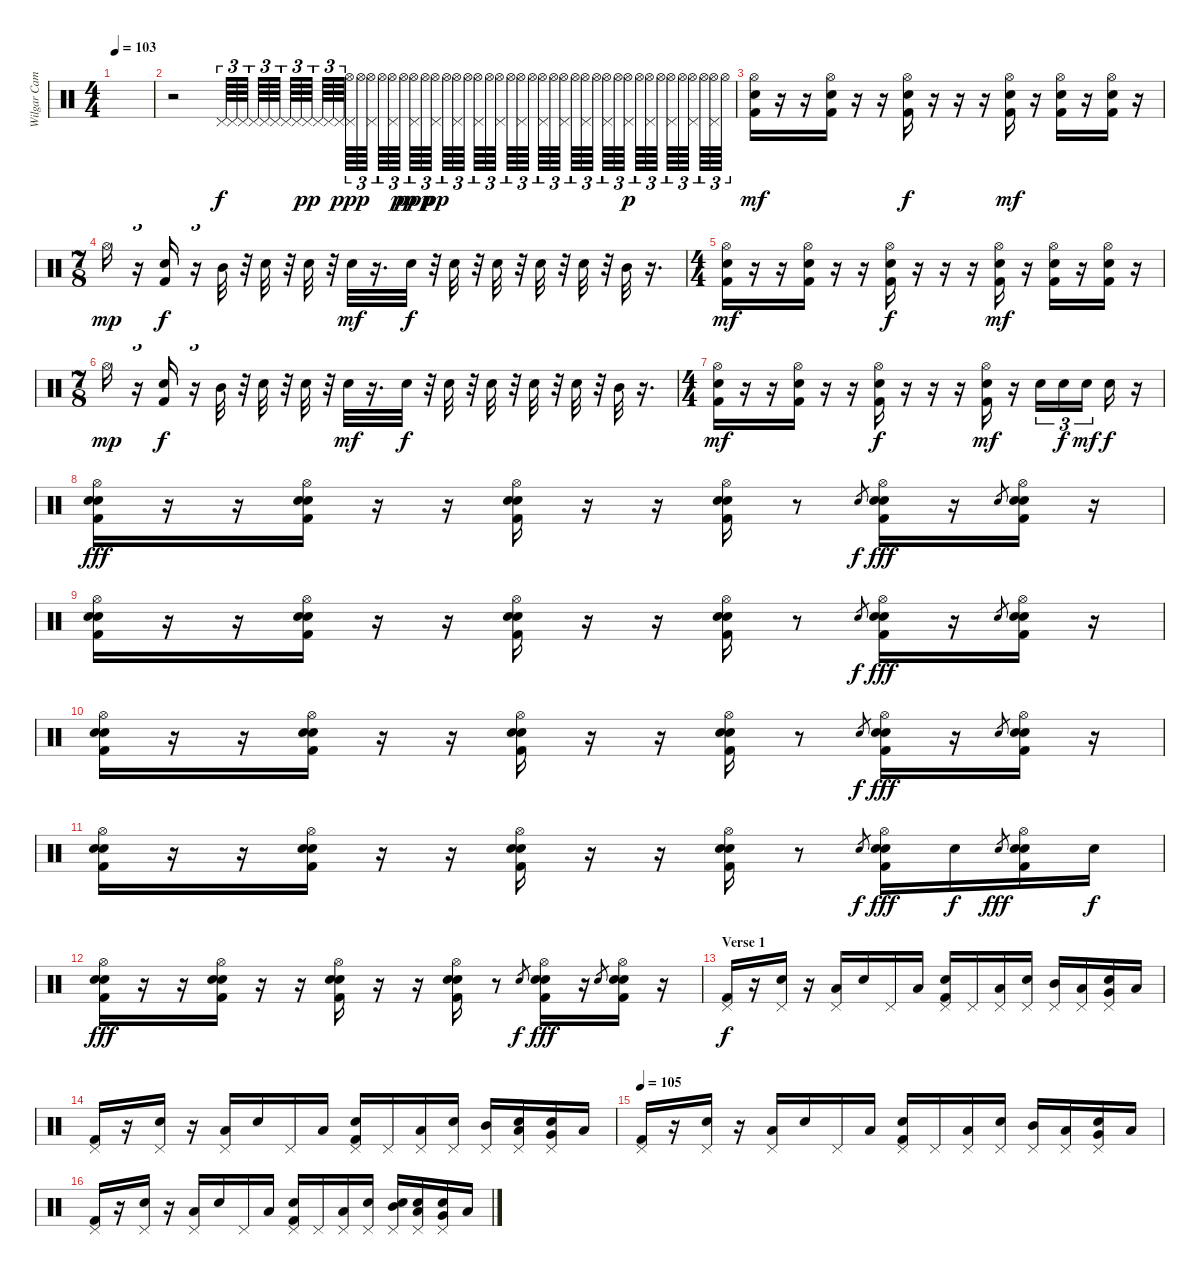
\track ("Wilgar Campbell" "Wilgar Cam") {instrument percussion}
\staff {score}
\articulation defaults
\ts (4 4)
\tempo 103
\clef neutral
\ks c
|
r.2 "Pedal Hi-Hat (hit)".64{tu (3 2)} "Pedal Hi-Hat (hit)".64{tu (3 2)} "Pedal Hi-Hat (hit)".64{tu (3 2)} "Pedal Hi-Hat (hit)".64{tu (3 2)} "Pedal Hi-Hat (hit)".64{tu (3 2)} "Pedal Hi-Hat (hit)".64{tu (3 2)} "Pedal Hi-Hat (hit)".64{tu (3 2)} "Pedal Hi-Hat (hit)".64{tu (3 2)} "Pedal Hi-Hat (hit)".64{tu (3 2) dy pp} "Pedal Hi-Hat (hit)".64{tu (3 2)} "Pedal Hi-Hat (hit)".64{tu (3 2)} "Pedal Hi-Hat (hit)".64{tu (3 2)} ("Pedal Hi-Hat (hit)" "Hi-Hat (open)").64{tu (3 2) dy ppp} "Hi-Hat (open)".64{tu (3 2)} ("Pedal Hi-Hat (hit)" "Hi-Hat (open)").64{tu (3 2)} "Hi-Hat (open)".64{tu (3 2)} ("Pedal Hi-Hat (hit)" "Hi-Hat (open)").64{tu (3 2)} "Hi-Hat (open)".64{tu (3 2) dy pp} ("Pedal Hi-Hat (hit)" "Hi-Hat (open)").64{tu (3 2) dy ppp} "Hi-Hat (open)".64{tu (3 2)} ("Pedal Hi-Hat (hit)" "Hi-Hat (open)").64{tu (3 2) dy pp} "Hi-Hat (open)".64{tu (3 2)} ("Pedal Hi-Hat (hit)" "Hi-Hat (open)").64{tu (3 2)} "Hi-Hat (open)".64{tu (3 2)} ("Pedal Hi-Hat (hit)" "Hi-Hat (open)").64{tu (3 2)} "Hi-Hat (open)".64{tu (3 2)} ("Pedal Hi-Hat (hit)" "Hi-Hat (open)").64{tu (3 2)} "Hi-Hat (open)".64{tu (3 2)} ("Pedal Hi-Hat (hit)" "Hi-Hat (open)").64{tu (3 2)} "Hi-Hat (open)".64{tu (3 2)} ("Pedal Hi-Hat (hit)" "Hi-Hat (open)").64{tu (3 2)} "Hi-Hat (open)".64{tu (3 2)} ("Pedal Hi-Hat (hit)" "Hi-Hat (open)").64{tu (3 2)} "Hi-Hat (open)".64{tu (3 2)} ("Pedal Hi-Hat (hit)" "Hi-Hat (open)").64{tu (3 2)} "Hi-Hat (open)".64{tu (3 2)} ("Pedal Hi-Hat (hit)" "Hi-Hat (open)").64{tu (3 2)} "Hi-Hat (open)".64{tu (3 2)} ("Pedal Hi-Hat (hit)" "Hi-Hat (open)").64{tu (3 2) dy p} "Hi-Hat (open)".64{tu (3 2)} ("Pedal Hi-Hat (hit)" "Hi-Hat (open)").64{tu (3 2)} "Hi-Hat (open)".64{tu (3 2)} ("Pedal Hi-Hat (hit)" "Hi-Hat (open)").64{tu (3 2)} "Hi-Hat (open)".64{tu (3 2)} ("Pedal Hi-Hat (hit)" "Hi-Hat (open)").64{tu (3 2)} "Hi-Hat (open)".64{tu (3 2)} ("Pedal Hi-Hat (hit)" "Hi-Hat (open)").64{tu (3 2)} "Hi-Hat (open)".64{tu (3 2)} |
("Hi-Hat (open)" "Snare (hit) 2" "Kick (hit) 2").16{dy mf} r.16 r.16 ("Hi-Hat (open)" "Snare (hit) 2" "Kick (hit) 2").16 r.16 r.16 ("Hi-Hat (open)" "Snare (hit) 2" "Kick (hit) 2").16{dy f} r.16 r.16 r.16 ("Hi-Hat (open)" "Snare (hit) 2" "Kick (hit) 2").16{dy mf} r.16 ("Hi-Hat (open)" "Snare (hit) 2" "Kick (hit) 2").16 r.16 ("Hi-Hat (open)" "Snare (hit) 2" "Kick (hit) 2").16 r.16 |
\ts (7 8)
"Hi-Hat (open)".16{dy mp} r.16{tu (3 2)} ("Snare (hit) 2" "Kick (hit) 2").16{dy f} r.16{tu (3 2)} "Mid Tom (hit)".32 r.32{tu (3 2)} "Electric Snare (hit)".32 r.32{tu (3 2)} "Electric Snare (hit)".32 r.32{tu (3 2)} "Snare (hit) 2".32{dy mf} r.16{d} "Snare (hit) 2".32{dy f} r.32{tu (3 2)} "Electric Snare (hit)".32 r.32{tu (3 2)} "Electric Snare (hit)".32 r.32{tu (3 2)} "Electric Snare (hit)".32 r.32{tu (3 2)} "Snare (hit) 2".32 r.32{tu (3 2)} "Mid Tom (hit)".32 r.16{d} |
\ts (4 4)
("Hi-Hat (open)" "Snare (hit) 2" "Kick (hit) 2").16{dy mf} r.16 r.16 ("Hi-Hat (open)" "Snare (hit) 2" "Kick (hit) 2").16 r.16 r.16 ("Hi-Hat (open)" "Snare (hit) 2" "Kick (hit) 2").16{dy f} r.16 r.16 r.16 ("Hi-Hat (open)" "Snare (hit) 2" "Kick (hit) 2").16{dy mf} r.16 ("Hi-Hat (open)" "Snare (hit) 2" "Kick (hit) 2").16 r.16 ("Hi-Hat (open)" "Snare (hit) 2" "Kick (hit) 2").16 r.16 |
\ts (7 8)
"Hi-Hat (open)".16{dy mp} r.16{tu (3 2)} ("Snare (hit) 2" "Kick (hit) 2").16{dy f} r.16{tu (3 2)} "Mid Tom (hit)".32 r.32{tu (3 2)} "Electric Snare (hit)".32 r.32{tu (3 2)} "Electric Snare (hit)".32 r.32{tu (3 2)} "Snare (hit) 2".32{dy mf} r.16{d} "Snare (hit) 2".32{dy f} r.32{tu (3 2)} "Electric Snare (hit)".32 r.32{tu (3 2)} "Electric Snare (hit)".32 r.32{tu (3 2)} "Electric Snare (hit)".32 r.32{tu (3 2)} "Snare (hit) 2".32 r.32{tu (3 2)} "Mid Tom (hit)".32 r.16{d} |
\ts (4 4)
("Hi-Hat (open)" "Snare (hit) 2" "Kick (hit) 2").16{dy mf} r.16 r.16 ("Hi-Hat (open)" "Snare (hit) 2" "Kick (hit) 2").16 r.16 r.16 ("Hi-Hat (open)" "Snare (hit) 2" "Kick (hit) 2").16{dy f} r.16 r.16 r.16 ("Hi-Hat (open)" "Snare (hit) 2" "Kick (hit) 2").16{dy mf} r.16 "Snare (hit) 2".16{tu (3 2)} "Snare (hit) 2".16{tu (3 2) dy f} "Snare (hit) 2".16{tu (3 2) dy mf} "Electric Snare (hit)".16{dy f} r.16 |
("Hi-Hat (open)" "Snare (hit) 2" "Electric Snare (hit)" "Kick (hit) 2").16{dy fff} r.16 r.16 ("Hi-Hat (open)" "Snare (hit) 2" "Electric Snare (hit)" "Kick (hit) 2").16 r.16 r.16 ("Hi-Hat (open)" "Snare (hit) 2" "Electric Snare (hit)" "Kick (hit) 2").16 r.16 r.16 ("Hi-Hat (open)" "Snare (hit) 2" "Electric Snare (hit)" "Kick (hit) 2").16 r.8 "Electric Snare (hit)".8{gr dy f} ("Hi-Hat (open)" "Snare (hit) 2" "Electric Snare (hit)" "Kick (hit) 2").16{dy fff} r.16 "Electric Snare (hit)".8{gr} ("Hi-Hat (open)" "Snare (hit) 2" "Electric Snare (hit)" "Kick (hit) 2").16 r.16 |
("Hi-Hat (open)" "Snare (hit) 2" "Electric Snare (hit)" "Kick (hit) 2").16 r.16 r.16 ("Hi-Hat (open)" "Snare (hit) 2" "Electric Snare (hit)" "Kick (hit) 2").16 r.16 r.16 ("Hi-Hat (open)" "Snare (hit) 2" "Electric Snare (hit)" "Kick (hit) 2").16 r.16 r.16 ("Hi-Hat (open)" "Snare (hit) 2" "Electric Snare (hit)" "Kick (hit) 2").16 r.8 "Electric Snare (hit)".8{gr dy f} ("Hi-Hat (open)" "Snare (hit) 2" "Electric Snare (hit)" "Kick (hit) 2").16{dy fff} r.16 "Electric Snare (hit)".8{gr} ("Hi-Hat (open)" "Snare (hit) 2" "Electric Snare (hit)" "Kick (hit) 2").16 r.16 |
("Hi-Hat (open)" "Snare (hit) 2" "Electric Snare (hit)" "Kick (hit) 2").16 r.16 r.16 ("Hi-Hat (open)" "Snare (hit) 2" "Electric Snare (hit)" "Kick (hit) 2").16 r.16 r.16 ("Hi-Hat (open)" "Snare (hit) 2" "Electric Snare (hit)" "Kick (hit) 2").16 r.16 r.16 ("Hi-Hat (open)" "Snare (hit) 2" "Electric Snare (hit)" "Kick (hit) 2").16 r.8 "Electric Snare (hit)".8{gr dy f} ("Hi-Hat (open)" "Snare (hit) 2" "Electric Snare (hit)" "Kick (hit) 2").16{dy fff} r.16 "Electric Snare (hit)".8{gr} ("Hi-Hat (open)" "Snare (hit) 2" "Electric Snare (hit)" "Kick (hit) 2").16 r.16 |
("Hi-Hat (open)" "Snare (hit) 2" "Electric Snare (hit)" "Kick (hit) 2").16 r.16 r.16 ("Hi-Hat (open)" "Snare (hit) 2" "Electric Snare (hit)" "Kick (hit) 2").16 r.16 r.16 ("Hi-Hat (open)" "Snare (hit) 2" "Electric Snare (hit)" "Kick (hit) 2").16 r.16 r.16 ("Hi-Hat (open)" "Snare (hit) 2" "Electric Snare (hit)" "Kick (hit) 2").16 r.8 "Electric Snare (hit)".8{gr dy f} ("Hi-Hat (open)" "Snare (hit) 2" "Electric Snare (hit)" "Kick (hit) 2").16{dy fff} "Electric Snare (hit)".16{dy f} "Electric Snare (hit)".8{gr dy fff} ("Hi-Hat (open)" "Snare (hit) 2" "Electric Snare (hit)" "Kick (hit) 2").16 "Electric Snare (hit)".16{dy f} |
("Hi-Hat (open)" "Snare (hit) 2" "Electric Snare (hit)" "Kick (hit) 2").16{dy fff} r.16 r.16 ("Hi-Hat (open)" "Snare (hit) 2" "Electric Snare (hit)" "Kick (hit) 2").16 r.16 r.16 ("Hi-Hat (open)" "Snare (hit) 2" "Electric Snare (hit)" "Kick (hit) 2").16 r.16 r.16 ("Hi-Hat (open)" "Snare (hit) 2" "Electric Snare (hit)" "Kick (hit) 2").16 r.8 "Electric Snare (hit)".8{gr dy f} ("Hi-Hat (open)" "Snare (hit) 2" "Electric Snare (hit)" "Kick (hit) 2").16{dy fff} r.16 "Electric Snare (hit)".8{gr} ("Hi-Hat (open)" "Snare (hit) 2" "Electric Snare (hit)" "Kick (hit) 2").16 r.16 |
\section ("" "Verse 1")
("Pedal Hi-Hat (hit)" "Kick (hit) 2").16{dy f} r.16 ("Snare (hit) 2" "Pedal Hi-Hat (hit)").16 r.16 ("Low Tom (hit)" "Pedal Hi-Hat (hit)").16 "Snare (hit) 2".16 "Pedal Hi-Hat (hit)".16 "Low Tom (hit)".16 ("Snare (hit) 2" "Pedal Hi-Hat (hit)" "Kick (hit) 2").16 "Pedal Hi-Hat (hit)".16 ("Low Tom (hit)" "Pedal Hi-Hat (hit)").16 ("Snare (hit) 2" "Pedal Hi-Hat (hit)").16 ("Mid Tom (hit)" "Pedal Hi-Hat (hit)").16 ("Low Tom (hit)" "Pedal Hi-Hat (hit)").16 ("Very Low Tom (hit)" "Snare (hit) 2" "Pedal Hi-Hat (hit)").16 "Low Tom (hit)".16 |
("Pedal Hi-Hat (hit)" "Kick (hit) 2").16 r.16 ("Snare (hit) 2" "Pedal Hi-Hat (hit)").16 r.16 ("Low Tom (hit)" "Pedal Hi-Hat (hit)").16 "Snare (hit) 2".16 "Pedal Hi-Hat (hit)".16 "Low Tom (hit)".16 ("Snare (hit) 2" "Pedal Hi-Hat (hit)" "Kick (hit) 2").16 "Pedal Hi-Hat (hit)".16 ("Low Tom (hit)" "Pedal Hi-Hat (hit)").16 ("Snare (hit) 2" "Pedal Hi-Hat (hit)").16 ("Mid Tom (hit)" "Pedal Hi-Hat (hit)").16 ("Low Tom (hit)" "Snare (hit) 2" "Pedal Hi-Hat (hit)").16 ("Very Low Tom (hit)" "Snare (hit) 2" "Pedal Hi-Hat (hit)").16 "Low Tom (hit)".16 |
\tempo 105
("Pedal Hi-Hat (hit)" "Kick (hit) 2").16 r.16 ("Snare (hit) 2" "Pedal Hi-Hat (hit)").16 r.16 ("Low Tom (hit)" "Pedal Hi-Hat (hit)").16 "Snare (hit) 2".16 "Pedal Hi-Hat (hit)".16 "Low Tom (hit)".16 ("Snare (hit) 2" "Pedal Hi-Hat (hit)" "Kick (hit) 2").16 "Pedal Hi-Hat (hit)".16 ("Low Tom (hit)" "Pedal Hi-Hat (hit)").16 ("Snare (hit) 2" "Pedal Hi-Hat (hit)").16 ("Mid Tom (hit)" "Pedal Hi-Hat (hit)").16 ("Low Tom (hit)" "Pedal Hi-Hat (hit)").16 ("Very Low Tom (hit)" "Snare (hit) 2" "Pedal Hi-Hat (hit)").16 "Low Tom (hit)".16 |
("Pedal Hi-Hat (hit)" "Kick (hit) 2").16 r.16 ("Snare (hit) 2" "Pedal Hi-Hat (hit)").16 r.16 ("Low Tom (hit)" "Pedal Hi-Hat (hit)").16 "Snare (hit) 2".16 "Pedal Hi-Hat (hit)".16 "Low Tom (hit)".16 ("Snare (hit) 2" "Pedal Hi-Hat (hit)" "Kick (hit) 2").16 "Pedal Hi-Hat (hit)".16 ("Low Tom (hit)" "Pedal Hi-Hat (hit)").16 ("Snare (hit) 2" "Pedal Hi-Hat (hit)").16 ("Mid Tom (hit)" "Electric Snare (hit)" "Pedal Hi-Hat (hit)").16 ("Low Tom (hit)" "Electric Snare (hit)" "Pedal Hi-Hat (hit)").16 ("Very Low Tom (hit)" "Snare (hit) 2" "Pedal Hi-Hat (hit)").16 "Low Tom (hit)".16
